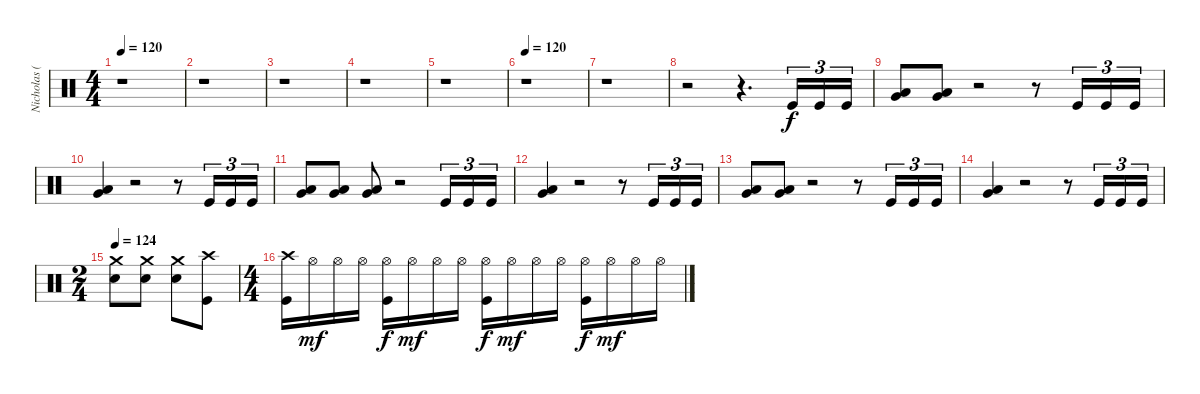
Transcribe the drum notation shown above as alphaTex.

\track ("Nicholas (Drums)" "Nicholas (") {instrument percussion}
\staff {score}
\articulation defaults
\ts (4 4)
\tempo 120
\clef neutral
\ks c
r.1{dy p} |
r.1 |
r.1 |
r.1 |
r.1 |
\tempo 120
r.1 |
r.1 |
r.2 r.4{d} "Kick (hit)".16{tu (3 2) dy f} "Kick (hit)".16{tu (3 2)} "Kick (hit)".16{tu (3 2)} |
("Low Tom (hit)" "Very Low Tom (hit)").8{bu 60} ("Low Tom (hit)" "Very Low Tom (hit)").8{bu 60} r.2 r.8 "Kick (hit)".16{tu (3 2)} "Kick (hit)".16{tu (3 2)} "Kick (hit)".16{tu (3 2)} |
("Low Tom (hit)" "Very Low Tom (hit)").4{bu 60} r.2 r.8 "Kick (hit)".16{tu (3 2)} "Kick (hit)".16{tu (3 2)} "Kick (hit)".16{tu (3 2)} |
("Low Tom (hit)" "Very Low Tom (hit)").8{bu 60} ("Low Tom (hit)" "Very Low Tom (hit)").8{bu 60} ("Low Tom (hit)" "Very Low Tom (hit)").8{bu 60} r.2 "Kick (hit)".16{tu (3 2)} "Kick (hit)".16{tu (3 2)} "Kick (hit)".16{tu (3 2)} |
("Low Tom (hit)" "Very Low Tom (hit)").4{bu 60} r.2 r.8 "Kick (hit)".16{tu (3 2)} "Kick (hit)".16{tu (3 2)} "Kick (hit)".16{tu (3 2)} |
("Low Tom (hit)" "Very Low Tom (hit)").8{bu 60} ("Low Tom (hit)" "Very Low Tom (hit)").8{bu 60} r.2 r.8 "Kick (hit)".16{tu (3 2)} "Kick (hit)".16{tu (3 2)} "Kick (hit)".16{tu (3 2)} |
("Low Tom (hit)" "Very Low Tom (hit)").4{bu 60} r.2 r.8 "Kick (hit)".16{tu (3 2)} "Kick (hit)".16{tu (3 2)} "Kick (hit)".16{tu (3 2)} |
\ts (2 4)
\tempo 124
("Crash medium (hit)" "Electric Snare (hit)").8 ("Crash medium (hit)" "Electric Snare (hit)").8 ("Crash medium (hit)" "Electric Snare (hit)").8 ("Crash high (hit)" "Kick (hit)").8 |
\ts (4 4)
("Crash high (hit)" "Kick (hit)").16 "Hi-Hat (open)".16{dy mf} "Hi-Hat (open)".16 "Hi-Hat (open)".16 ("Hi-Hat (open)" "Kick (hit)").16{dy f} "Hi-Hat (open)".16{dy mf} "Hi-Hat (open)".16 "Hi-Hat (open)".16 ("Hi-Hat (open)" "Kick (hit)").16{dy f} "Hi-Hat (open)".16{dy mf} "Hi-Hat (open)".16 "Hi-Hat (open)".16 ("Hi-Hat (open)" "Kick (hit)").16{dy f} "Hi-Hat (open)".16{dy mf} "Hi-Hat (open)".16 "Hi-Hat (open)".16
